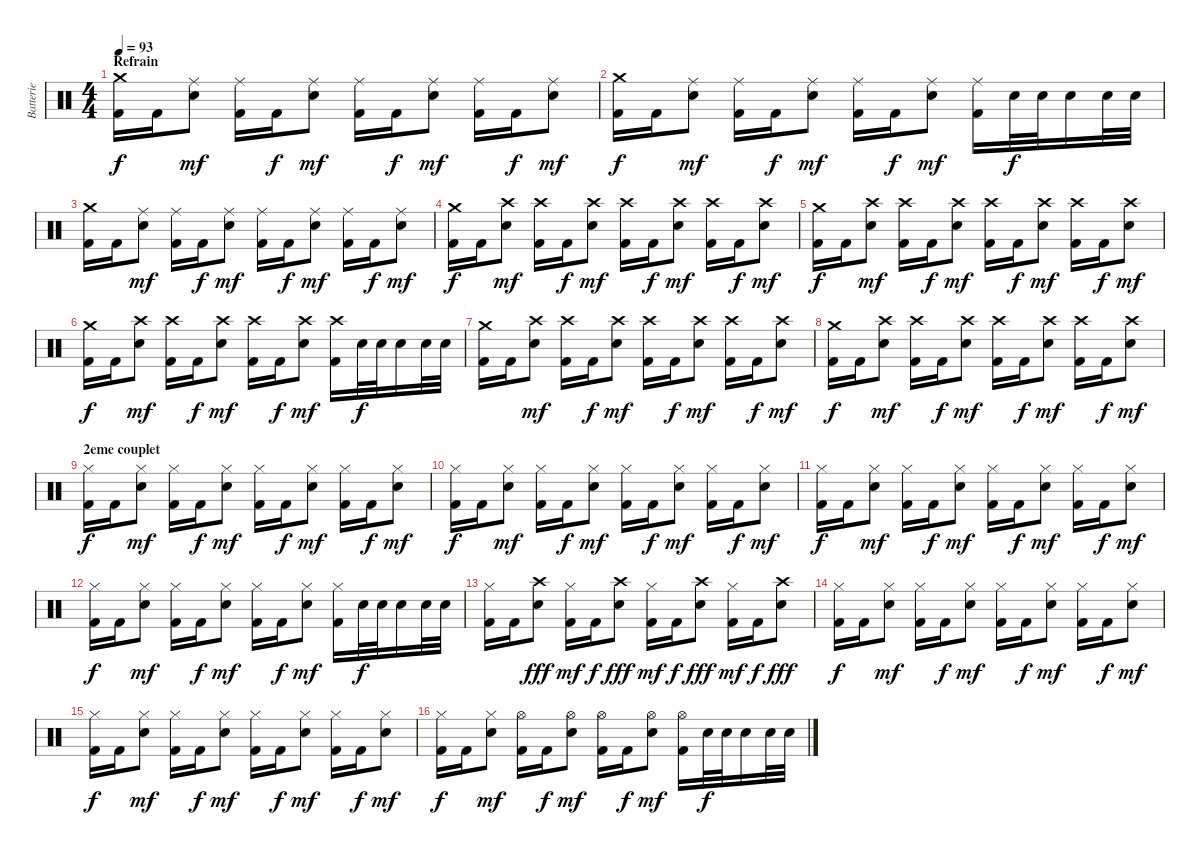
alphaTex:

\track ("Batterie" "Batterie") {instrument percussion}
\staff {score}
\articulation defaults
\ts (4 4)
\section ("" "Refrain")
\tempo 93
\clef neutral
\ks c
("Crash medium (hit)" "Kick (hit) 2").16{dy f} "Kick (hit) 2".16 ("Ride (middle)" "Snare (hit) 2").8{dy mf} ("Ride (middle)" "Kick (hit) 2").16 "Kick (hit) 2".16{dy f} ("Ride (middle)" "Snare (hit) 2").8{dy mf} ("Ride (middle)" "Kick (hit) 2").16 "Kick (hit) 2".16{dy f} ("Ride (middle)" "Snare (hit) 2").8{dy mf} ("Ride (middle)" "Kick (hit) 2").16 "Kick (hit) 2".16{dy f} ("Ride (middle)" "Snare (hit) 2").8{dy mf} |
("Crash medium (hit)" "Kick (hit) 2").16{dy f} "Kick (hit) 2".16 ("Ride (middle)" "Snare (hit) 2").8{dy mf} ("Ride (middle)" "Kick (hit) 2").16 "Kick (hit) 2".16{dy f} ("Ride (middle)" "Snare (hit) 2").8{dy mf} ("Ride (middle)" "Kick (hit) 2").16 "Kick (hit) 2".16{dy f} ("Ride (middle)" "Snare (hit) 2").8{dy mf} ("Ride (middle)" "Kick (hit) 2").16 "Snare (hit) 2".32{dy f} "Snare (hit) 2".32 "Snare (hit) 2".16 "Snare (hit) 2".32 "Snare (hit) 2".32 |
("Crash medium (hit)" "Kick (hit) 2").16 "Kick (hit) 2".16 ("Ride (middle)" "Snare (hit) 2").8{dy mf} ("Ride (middle)" "Kick (hit) 2").16 "Kick (hit) 2".16{dy f} ("Ride (middle)" "Snare (hit) 2").8{dy mf} ("Ride (middle)" "Kick (hit) 2").16 "Kick (hit) 2".16{dy f} ("Ride (middle)" "Snare (hit) 2").8{dy mf} ("Ride (middle)" "Kick (hit) 2").16 "Kick (hit) 2".16{dy f} ("Ride (middle)" "Snare (hit) 2").8{dy mf} |
("Crash medium (hit)" "Kick (hit) 2").16{dy f} "Kick (hit) 2".16 ("Crash high (hit)" "Snare (hit) 2").8{dy mf} ("Crash high (hit)" "Kick (hit) 2").16 "Kick (hit) 2".16{dy f} ("Crash high (hit)" "Snare (hit) 2").8{dy mf} ("Crash high (hit)" "Kick (hit) 2").16 "Kick (hit) 2".16{dy f} ("Crash high (hit)" "Snare (hit) 2").8{dy mf} ("Crash high (hit)" "Kick (hit) 2").16 "Kick (hit) 2".16{dy f} ("Crash high (hit)" "Snare (hit) 2").8{dy mf} |
("Crash medium (hit)" "Kick (hit) 2").16{dy f} "Kick (hit) 2".16 ("Crash high (hit)" "Snare (hit) 2").8{dy mf} ("Crash high (hit)" "Kick (hit) 2").16 "Kick (hit) 2".16{dy f} ("Crash high (hit)" "Snare (hit) 2").8{dy mf} ("Crash high (hit)" "Kick (hit) 2").16 "Kick (hit) 2".16{dy f} ("Crash high (hit)" "Snare (hit) 2").8{dy mf} ("Crash high (hit)" "Kick (hit) 2").16 "Kick (hit) 2".16{dy f} ("Crash high (hit)" "Snare (hit) 2").8{dy mf} |
("Crash medium (hit)" "Kick (hit) 2").16{dy f} "Kick (hit) 2".16 ("Crash high (hit)" "Snare (hit) 2").8{dy mf} ("Crash high (hit)" "Kick (hit) 2").16 "Kick (hit) 2".16{dy f} ("Crash high (hit)" "Snare (hit) 2").8{dy mf} ("Crash high (hit)" "Kick (hit) 2").16 "Kick (hit) 2".16{dy f} ("Crash high (hit)" "Snare (hit) 2").8{dy mf} ("Crash high (hit)" "Kick (hit) 2").16 "Snare (hit) 2".32{dy f} "Snare (hit) 2".32 "Snare (hit) 2".16 "Snare (hit) 2".32 "Snare (hit) 2".32 |
("Crash medium (hit)" "Kick (hit) 2").16 "Kick (hit) 2".16 ("Crash high (hit)" "Snare (hit) 2").8{dy mf} ("Crash high (hit)" "Kick (hit) 2").16 "Kick (hit) 2".16{dy f} ("Crash high (hit)" "Snare (hit) 2").8{dy mf} ("Crash high (hit)" "Kick (hit) 2").16 "Kick (hit) 2".16{dy f} ("Crash high (hit)" "Snare (hit) 2").8{dy mf} ("Crash high (hit)" "Kick (hit) 2").16 "Kick (hit) 2".16{dy f} ("Crash high (hit)" "Snare (hit) 2").8{dy mf} |
("Crash medium (hit)" "Kick (hit) 2").16{dy f} "Kick (hit) 2".16 ("Crash high (hit)" "Snare (hit) 2").8{dy mf} ("Crash high (hit)" "Kick (hit) 2").16 "Kick (hit) 2".16{dy f} ("Crash high (hit)" "Snare (hit) 2").8{dy mf} ("Crash high (hit)" "Kick (hit) 2").16 "Kick (hit) 2".16{dy f} ("Crash high (hit)" "Snare (hit) 2").8{dy mf} ("Crash high (hit)" "Kick (hit) 2").16 "Kick (hit) 2".16{dy f} ("Crash high (hit)" "Snare (hit) 2").8{dy mf} |
\section ("" "2eme couplet")
("Hi-Hat (closed)" "Kick (hit) 2").16{dy f} "Kick (hit) 2".16 ("Hi-Hat (closed)" "Snare (hit) 2").8{dy mf} ("Hi-Hat (closed)" "Kick (hit) 2").16 "Kick (hit) 2".16{dy f} ("Hi-Hat (closed)" "Snare (hit) 2").8{dy mf} ("Hi-Hat (closed)" "Kick (hit) 2").16 "Kick (hit) 2".16{dy f} ("Hi-Hat (closed)" "Snare (hit) 2").8{dy mf} ("Hi-Hat (closed)" "Kick (hit) 2").16 "Kick (hit) 2".16{dy f} ("Hi-Hat (closed)" "Snare (hit) 2").8{dy mf} |
("Hi-Hat (closed)" "Kick (hit) 2").16{dy f} "Kick (hit) 2".16 ("Hi-Hat (closed)" "Snare (hit) 2").8{dy mf} ("Hi-Hat (closed)" "Kick (hit) 2").16 "Kick (hit) 2".16{dy f} ("Hi-Hat (closed)" "Snare (hit) 2").8{dy mf} ("Hi-Hat (closed)" "Kick (hit) 2").16 "Kick (hit) 2".16{dy f} ("Hi-Hat (closed)" "Snare (hit) 2").8{dy mf} ("Hi-Hat (closed)" "Kick (hit) 2").16 "Kick (hit) 2".16{dy f} ("Hi-Hat (closed)" "Snare (hit) 2").8{dy mf} |
("Hi-Hat (closed)" "Kick (hit) 2").16{dy f} "Kick (hit) 2".16 ("Hi-Hat (closed)" "Snare (hit) 2").8{dy mf} ("Hi-Hat (closed)" "Kick (hit) 2").16 "Kick (hit) 2".16{dy f} ("Hi-Hat (closed)" "Snare (hit) 2").8{dy mf} ("Hi-Hat (closed)" "Kick (hit) 2").16 "Kick (hit) 2".16{dy f} ("Hi-Hat (closed)" "Snare (hit) 2").8{dy mf} ("Hi-Hat (closed)" "Kick (hit) 2").16 "Kick (hit) 2".16{dy f} ("Hi-Hat (closed)" "Snare (hit) 2").8{dy mf} |
("Hi-Hat (closed)" "Kick (hit) 2").16{dy f} "Kick (hit) 2".16 ("Hi-Hat (closed)" "Snare (hit) 2").8{dy mf} ("Hi-Hat (closed)" "Kick (hit) 2").16 "Kick (hit) 2".16{dy f} ("Hi-Hat (closed)" "Snare (hit) 2").8{dy mf} ("Hi-Hat (closed)" "Kick (hit) 2").16 "Kick (hit) 2".16{dy f} ("Hi-Hat (closed)" "Snare (hit) 2").8{dy mf} ("Hi-Hat (closed)" "Kick (hit) 2").16 "Snare (hit) 2".32{dy f} "Snare (hit) 2".32 "Snare (hit) 2".16 "Snare (hit) 2".32 "Snare (hit) 2".32 |
("Hi-Hat (closed)" "Kick (hit) 2").16 "Kick (hit) 2".16 ("Crash high (hit)" "Snare (hit) 2").8{dy fff} ("Hi-Hat (closed)" "Kick (hit) 2").16{dy mf} "Kick (hit) 2".16{dy f} ("Crash high (hit)" "Snare (hit) 2").8{dy fff} ("Hi-Hat (closed)" "Kick (hit) 2").16{dy mf} "Kick (hit) 2".16{dy f} ("Crash high (hit)" "Snare (hit) 2").8{dy fff} ("Hi-Hat (closed)" "Kick (hit) 2").16{dy mf} "Kick (hit) 2".16{dy f} ("Crash high (hit)" "Snare (hit) 2").8{dy fff} |
("Hi-Hat (closed)" "Kick (hit) 2").16{dy f} "Kick (hit) 2".16 ("Hi-Hat (closed)" "Snare (hit) 2").8{dy mf} ("Hi-Hat (closed)" "Kick (hit) 2").16 "Kick (hit) 2".16{dy f} ("Hi-Hat (closed)" "Snare (hit) 2").8{dy mf} ("Hi-Hat (closed)" "Kick (hit) 2").16 "Kick (hit) 2".16{dy f} ("Hi-Hat (closed)" "Snare (hit) 2").8{dy mf} ("Hi-Hat (closed)" "Kick (hit) 2").16 "Kick (hit) 2".16{dy f} ("Hi-Hat (closed)" "Snare (hit) 2").8{dy mf} |
("Hi-Hat (closed)" "Kick (hit) 2").16{dy f} "Kick (hit) 2".16 ("Hi-Hat (closed)" "Snare (hit) 2").8{dy mf} ("Hi-Hat (closed)" "Kick (hit) 2").16 "Kick (hit) 2".16{dy f} ("Hi-Hat (closed)" "Snare (hit) 2").8{dy mf} ("Hi-Hat (closed)" "Kick (hit) 2").16 "Kick (hit) 2".16{dy f} ("Hi-Hat (closed)" "Snare (hit) 2").8{dy mf} ("Hi-Hat (closed)" "Kick (hit) 2").16 "Kick (hit) 2".16{dy f} ("Hi-Hat (closed)" "Snare (hit) 2").8{dy mf} |
("Hi-Hat (closed)" "Kick (hit) 2").16{dy f} "Kick (hit) 2".16 ("Hi-Hat (closed)" "Snare (hit) 2").8{dy mf} ("Hi-Hat (open)" "Kick (hit) 2").16 "Kick (hit) 2".16{dy f} ("Hi-Hat (open)" "Snare (hit) 2").8{dy mf} ("Hi-Hat (open)" "Kick (hit) 2").16 "Kick (hit) 2".16{dy f} ("Hi-Hat (open)" "Snare (hit) 2").8{dy mf} ("Hi-Hat (open)" "Kick (hit) 2").16 "Snare (hit) 2".32{dy f} "Snare (hit) 2".32 "Snare (hit) 2".16 "Snare (hit) 2".32 "Snare (hit) 2".32
